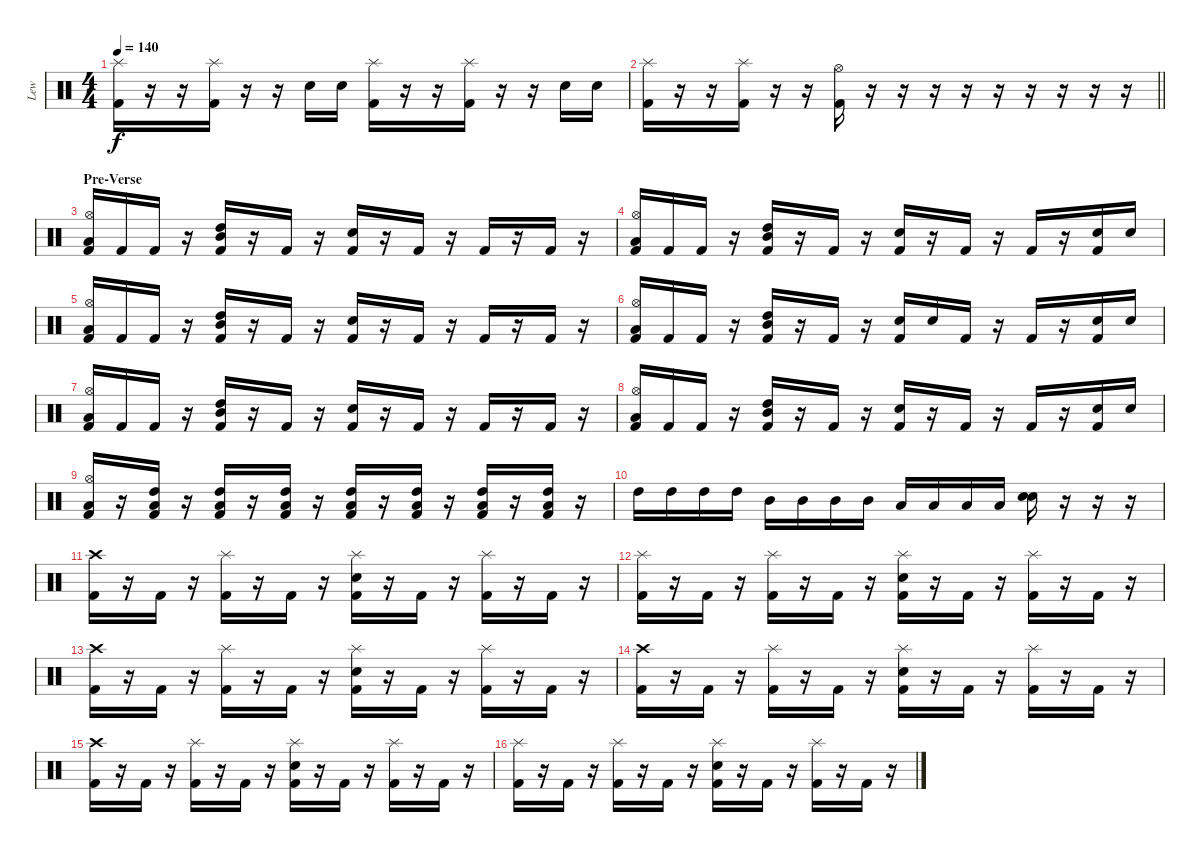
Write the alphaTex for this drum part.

\track ("Lew" "Lew") {instrument percussion}
\staff {score}
\articulation defaults
\ts (4 4)
\tempo 140
\clef neutral
\ks c
("Splash (hit)" "Kick (hit) 2").16{dy f} r.16 r.16 ("Splash (hit)" "Kick (hit) 2").16 r.16 r.16 "Electric Snare (hit)".16 "Electric Snare (hit)".16 ("Splash (hit)" "Kick (hit) 2").16 r.16 r.16 ("Splash (hit)" "Kick (hit) 2").16 r.16 r.16 "Electric Snare (hit)".16 "Electric Snare (hit)".16 |
\barLineRight lightlight
("Splash (hit)" "Kick (hit) 2").16 r.16 r.16 ("Splash (hit)" "Kick (hit) 2").16 r.16 r.16 ("Hi-Hat (open)" "Kick (hit) 2").16 r.16 r.16{volume 0} r.16 r.16 r.16 r.16 r.16 r.16 r.16 |
\section ("" "Pre-Verse")
("Hi-Hat (open)" "Low Tom (hit)" "Kick (hit) 2").16{volume 13} "Kick (hit) 2".16 "Kick (hit) 2".16 r.16 ("Mid Tom (hit)" "High Tom (hit)" "Kick (hit) 2").16 r.16 "Kick (hit) 2".16 r.16 ("Electric Snare (hit)" "Kick (hit) 2").16 r.16 "Kick (hit) 2".16 r.16 "Kick (hit) 2".16 r.16 "Kick (hit) 2".16 r.16 |
("Hi-Hat (open)" "Low Tom (hit)" "Kick (hit) 2").16 "Kick (hit) 2".16 "Kick (hit) 2".16 r.16 ("Mid Tom (hit)" "High Tom (hit)" "Kick (hit) 2").16 r.16 "Kick (hit) 2".16 r.16 ("Electric Snare (hit)" "Kick (hit) 2").16 r.16 "Kick (hit) 2".16 r.16 "Kick (hit) 2".16 r.16 ("Electric Snare (hit)" "Kick (hit) 2").16 "Electric Snare (hit)".16 |
("Hi-Hat (open)" "Low Tom (hit)" "Kick (hit) 2").16 "Kick (hit) 2".16 "Kick (hit) 2".16 r.16 ("Mid Tom (hit)" "High Tom (hit)" "Kick (hit) 2").16 r.16 "Kick (hit) 2".16 r.16 ("Electric Snare (hit)" "Kick (hit) 2").16 r.16 "Kick (hit) 2".16 r.16 "Kick (hit) 2".16 r.16 "Kick (hit) 2".16 r.16 |
("Hi-Hat (open)" "Low Tom (hit)" "Kick (hit) 2").16 "Kick (hit) 2".16 "Kick (hit) 2".16 r.16 ("Mid Tom (hit)" "High Tom (hit)" "Kick (hit) 2").16 r.16 "Kick (hit) 2".16 r.16 ("Electric Snare (hit)" "Kick (hit) 2").16 "Electric Snare (hit)".16 "Kick (hit) 2".16 r.16 "Kick (hit) 2".16 r.16 ("Electric Snare (hit)" "Kick (hit) 2").16 "Electric Snare (hit)".16 |
("Hi-Hat (open)" "Low Tom (hit)" "Kick (hit) 2").16 "Kick (hit) 2".16 "Kick (hit) 2".16 r.16 ("Mid Tom (hit)" "High Tom (hit)" "Kick (hit) 2").16 r.16 "Kick (hit) 2".16 r.16 ("Electric Snare (hit)" "Kick (hit) 2").16 r.16 "Kick (hit) 2".16 r.16 "Kick (hit) 2".16 r.16 "Kick (hit) 2".16 r.16 |
("Hi-Hat (open)" "Low Tom (hit)" "Kick (hit) 2").16 "Kick (hit) 2".16 "Kick (hit) 2".16 r.16 ("Mid Tom (hit)" "High Tom (hit)" "Kick (hit) 2").16 r.16 "Kick (hit) 2".16 r.16 ("Electric Snare (hit)" "Kick (hit) 2").16 r.16 "Kick (hit) 2".16 r.16 "Kick (hit) 2".16 r.16 ("Electric Snare (hit)" "Kick (hit) 2").16 "Electric Snare (hit)".16 |
("Hi-Hat (open)" "Low Tom (hit)" "Kick (hit) 2").16 r.16 ("High Tom (hit)" "Low Tom (hit)" "Kick (hit) 2").16 r.16 ("High Tom (hit)" "Low Tom (hit)" "Kick (hit) 2").16 r.16 ("High Tom (hit)" "Low Tom (hit)" "Kick (hit) 2").16 r.16 ("High Tom (hit)" "Low Tom (hit)" "Kick (hit) 2").16{volume 16} r.16 ("High Tom (hit)" "Low Tom (hit)" "Kick (hit) 2").16 r.16 ("High Tom (hit)" "Low Tom (hit)" "Kick (hit) 2").16 r.16 ("High Tom (hit)" "Low Tom (hit)" "Kick (hit) 2").16 r.16 |
"High Tom (hit)".16{volume 16} "High Tom (hit)".16 "High Tom (hit)".16 "High Tom (hit)".16 "Mid Tom (hit)".16 "Mid Tom (hit)".16 "Mid Tom (hit)".16 "Mid Tom (hit)".16 "Low Tom (hit)".16 "Low Tom (hit)".16 "Low Tom (hit)".16 "Low Tom (hit)".16 ("Electric Snare (hit)" "Electric Snare (hit)").16 r.16 r.16 r.16 |
("Crash high (hit)" "Kick (hit) 2").16{volume 13} r.16 "Kick (hit) 2".16 r.16 ("Splash (hit)" "Kick (hit) 2").16 r.16 "Kick (hit) 2".16 r.16 ("Splash (hit)" "Electric Snare (hit)" "Kick (hit) 2").16 r.16 "Kick (hit) 2".16 r.16 ("Splash (hit)" "Kick (hit) 2").16 r.16 "Kick (hit) 2".16 r.16 |
("Splash (hit)" "Kick (hit) 2").16 r.16 "Kick (hit) 2".16 r.16 ("Splash (hit)" "Kick (hit) 2").16 r.16 "Kick (hit) 2".16 r.16 ("Splash (hit)" "Electric Snare (hit)" "Kick (hit) 2").16 r.16 "Kick (hit) 2".16 r.16 ("Splash (hit)" "Kick (hit) 2").16 r.16 "Kick (hit) 2".16 r.16 |
("Crash high (hit)" "Kick (hit) 2").16 r.16 "Kick (hit) 2".16 r.16 ("Splash (hit)" "Kick (hit) 2").16 r.16 "Kick (hit) 2".16 r.16 ("Splash (hit)" "Electric Snare (hit)" "Kick (hit) 2").16 r.16 "Kick (hit) 2".16 r.16 ("Splash (hit)" "Kick (hit) 2").16 r.16 "Kick (hit) 2".16 r.16 |
("Crash high (hit)" "Kick (hit) 2").16 r.16 "Kick (hit) 2".16 r.16 ("Splash (hit)" "Kick (hit) 2").16 r.16 "Kick (hit) 2".16 r.16 ("Splash (hit)" "Electric Snare (hit)" "Kick (hit) 2").16 r.16 "Kick (hit) 2".16 r.16 ("Splash (hit)" "Kick (hit) 2").16 r.16 "Kick (hit) 2".16 r.16 |
("Crash high (hit)" "Kick (hit) 2").16 r.16 "Kick (hit) 2".16 r.16 ("Splash (hit)" "Kick (hit) 2").16 r.16 "Kick (hit) 2".16 r.16 ("Splash (hit)" "Electric Snare (hit)" "Kick (hit) 2").16 r.16 "Kick (hit) 2".16 r.16 ("Splash (hit)" "Kick (hit) 2").16 r.16 "Kick (hit) 2".16 r.16 |
("Splash (hit)" "Kick (hit) 2").16 r.16 "Kick (hit) 2".16 r.16 ("Splash (hit)" "Kick (hit) 2").16 r.16 "Kick (hit) 2".16 r.16 ("Splash (hit)" "Electric Snare (hit)" "Kick (hit) 2").16 r.16 "Kick (hit) 2".16 r.16 ("Splash (hit)" "Kick (hit) 2").16 r.16 "Kick (hit) 2".16 r.16
